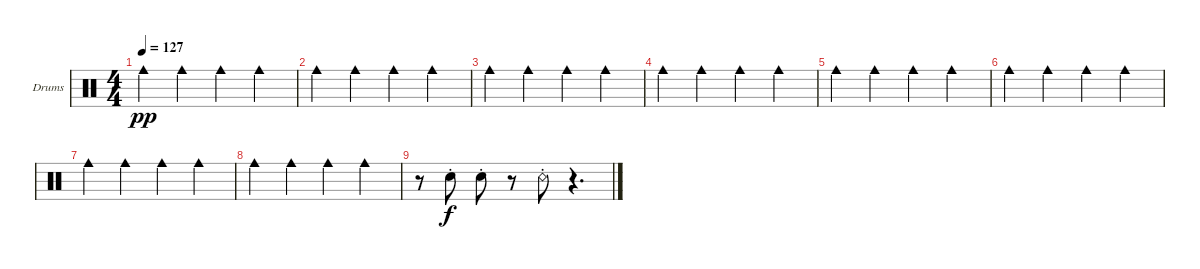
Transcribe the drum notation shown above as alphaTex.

\defaultSystemsLayout 4
\bracketExtendMode groupsimilarinstruments
\firstSystemTrackNameOrientation horizontal
\otherSystemsTrackNameOrientation horizontal
\track ("Drumkit" "Drums") {instrument percussion}
\staff {score}
\articulation defaults
\ts (4 4)
\tempo 127
\clef neutral
\ks c "Cowbell medium (hit)".4{dy pp} "Cowbell medium (hit)".4 "Cowbell medium (hit)".4 "Cowbell medium (hit)".4
|
"Cowbell medium (hit)".4 "Cowbell medium (hit)".4 "Cowbell medium (hit)".4 "Cowbell medium (hit)".4 |
"Cowbell medium (hit)".4 "Cowbell medium (hit)".4 "Cowbell medium (hit)".4 "Cowbell medium (hit)".4 |
"Cowbell medium (hit)".4 "Cowbell medium (hit)".4 "Cowbell medium (hit)".4 "Cowbell medium (hit)".4 |
"Cowbell medium (hit)".4 "Cowbell medium (hit)".4 "Cowbell medium (hit)".4 "Cowbell medium (hit)".4 |
"Cowbell medium (hit)".4 "Cowbell medium (hit)".4 "Cowbell medium (hit)".4 "Cowbell medium (hit)".4 |
"Cowbell medium (hit)".4 "Cowbell medium (hit)".4 "Cowbell medium (hit)".4 "Cowbell medium (hit)".4 |
"Cowbell medium (hit)".4 "Cowbell medium (hit)".4 "Cowbell medium (hit)".4 "Cowbell medium (hit)".4 |
r.8 "Snare (hit) 2"{st}.8{dy f} "Snare (hit) 2"{st}.8 r.8 "Snare (rim shot)"{st}.8 r.4{d}
